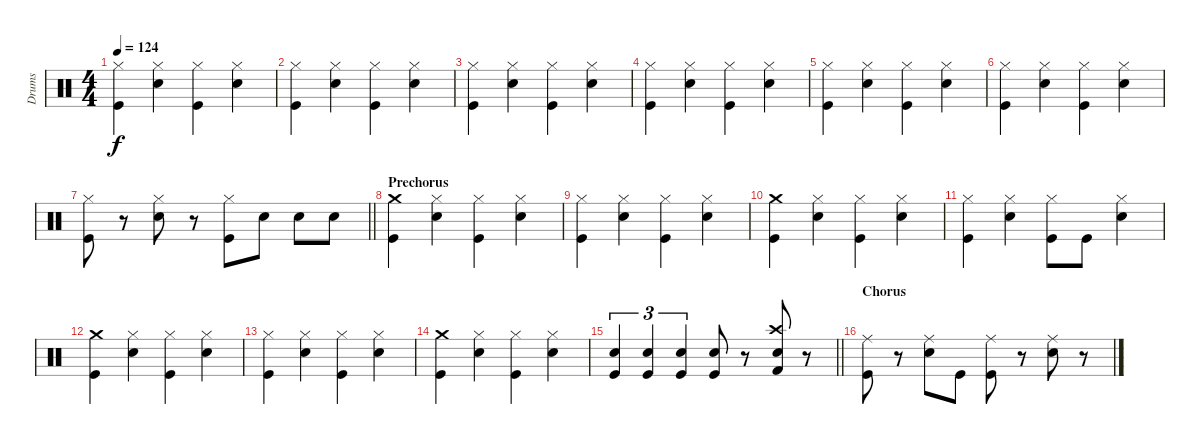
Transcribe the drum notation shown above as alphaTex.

\track ("Drums" "Drums") {instrument percussion}
\staff {score}
\articulation defaults
\ts (4 4)
\tempo 124
\clef neutral
\ks c
("Hi-Hat (closed)" "Kick (hit)").4{dy f} ("Hi-Hat (closed)" "Snare (hit) 2").4 ("Hi-Hat (closed)" "Kick (hit)").4 ("Hi-Hat (closed)" "Snare (hit) 2").4 |
("Hi-Hat (closed)" "Kick (hit)").4 ("Hi-Hat (closed)" "Snare (hit) 2").4 ("Hi-Hat (closed)" "Kick (hit)").4 ("Hi-Hat (closed)" "Snare (hit) 2").4 |
("Hi-Hat (closed)" "Kick (hit)").4 ("Hi-Hat (closed)" "Snare (hit) 2").4 ("Hi-Hat (closed)" "Kick (hit)").4 ("Hi-Hat (closed)" "Snare (hit) 2").4 |
("Hi-Hat (closed)" "Kick (hit)").4 ("Hi-Hat (closed)" "Snare (hit) 2").4 ("Hi-Hat (closed)" "Kick (hit)").4 ("Hi-Hat (closed)" "Snare (hit) 2").4 |
("Hi-Hat (closed)" "Kick (hit)").4 ("Hi-Hat (closed)" "Snare (hit) 2").4 ("Hi-Hat (closed)" "Kick (hit)").4 ("Hi-Hat (closed)" "Snare (hit) 2").4 |
("Hi-Hat (closed)" "Kick (hit)").4 ("Hi-Hat (closed)" "Snare (hit) 2").4 ("Hi-Hat (closed)" "Kick (hit)").4 ("Hi-Hat (closed)" "Snare (hit) 2").4 |
\barLineRight lightlight
("Hi-Hat (closed)" "Kick (hit)").8 r.8 ("Hi-Hat (closed)" "Snare (hit) 2").8 r.8 ("Hi-Hat (closed)" "Kick (hit)").8 "Snare (hit) 2".8 "Snare (hit) 2".8 "Snare (hit) 2".8 |
\section ("" "Prechorus")
("Crash medium (hit)" "Kick (hit)").4 ("Hi-Hat (closed)" "Snare (hit) 2").4 ("Hi-Hat (closed)" "Kick (hit)").4 ("Hi-Hat (closed)" "Snare (hit) 2").4 |
("Hi-Hat (closed)" "Kick (hit)").4 ("Hi-Hat (closed)" "Snare (hit) 2").4 ("Hi-Hat (closed)" "Kick (hit)").4 ("Hi-Hat (closed)" "Snare (hit) 2").4 |
("Crash medium (hit)" "Kick (hit)").4 ("Hi-Hat (closed)" "Snare (hit) 2").4 ("Hi-Hat (closed)" "Kick (hit)").4 ("Hi-Hat (closed)" "Snare (hit) 2").4 |
("Hi-Hat (closed)" "Kick (hit)").4 ("Hi-Hat (closed)" "Snare (hit) 2").4 ("Hi-Hat (closed)" "Kick (hit)").8 "Kick (hit)".8 ("Hi-Hat (closed)" "Snare (hit) 2").4 |
("Crash medium (hit)" "Kick (hit)").4 ("Hi-Hat (closed)" "Snare (hit) 2").4 ("Hi-Hat (closed)" "Kick (hit)").4 ("Hi-Hat (closed)" "Snare (hit) 2").4 |
("Hi-Hat (closed)" "Kick (hit)").4 ("Hi-Hat (closed)" "Snare (hit) 2").4 ("Hi-Hat (closed)" "Kick (hit)").4 ("Hi-Hat (closed)" "Snare (hit) 2").4 |
("Crash medium (hit)" "Kick (hit)").4 ("Hi-Hat (closed)" "Snare (hit) 2").4 ("Hi-Hat (closed)" "Kick (hit)").4 ("Hi-Hat (closed)" "Snare (hit) 2").4 |
\barLineRight lightlight
("Snare (hit) 2" "Kick (hit)").4{tu (3 2)} ("Snare (hit) 2" "Kick (hit)").4{tu (3 2)} ("Snare (hit) 2" "Kick (hit)").4{tu (3 2)} ("Snare (hit) 2" "Kick (hit)").8 r.8 ("Crash high (hit)" "Snare (hit) 2" "Kick (hit) 2").8 r.8 |
\section ("" "Chorus")
("Ride (middle)" "Kick (hit)").8 r.8 ("Ride (middle)" "Snare (hit) 2").8 "Kick (hit)".8 ("Ride (middle)" "Kick (hit)").8 r.8 ("Ride (middle)" "Snare (hit) 2").8 r.8
